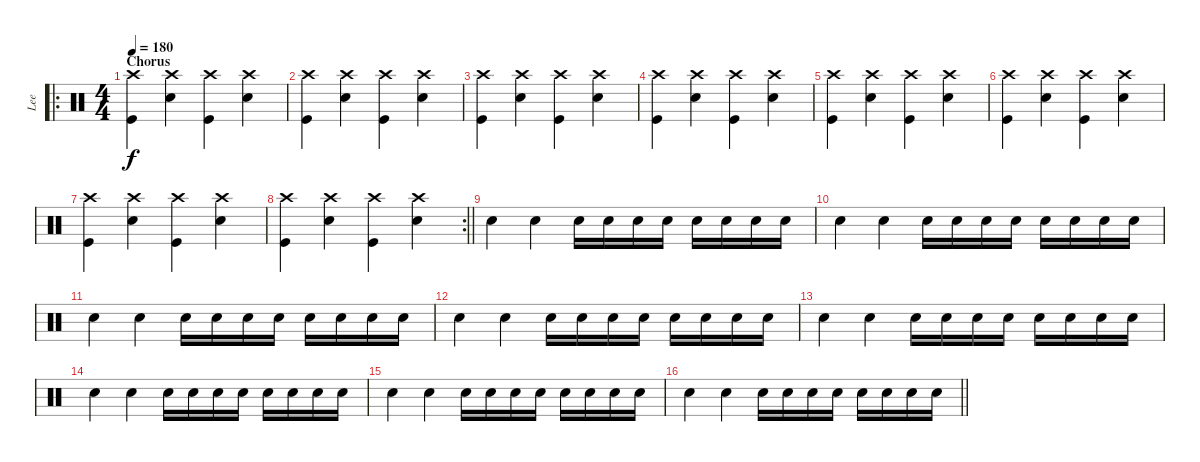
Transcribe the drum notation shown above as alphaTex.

\track ("Lee" "Lee") {instrument percussion}
\staff {score}
\articulation defaults
\ro
\ts (4 4)
\section ("" "Chorus")
\tempo 180
\clef neutral
\ks c
("Kick (hit)" "Crash high (hit)").4{dy f} ("Snare (hit) 2" "Crash high (hit)").4 ("Kick (hit)" "Crash high (hit)").4 ("Snare (hit) 2" "Crash high (hit)").4 |
("Kick (hit)" "Crash high (hit)").4 ("Snare (hit) 2" "Crash high (hit)").4 ("Kick (hit)" "Crash high (hit)").4 ("Snare (hit) 2" "Crash high (hit)").4 |
("Kick (hit)" "Crash high (hit)").4 ("Snare (hit) 2" "Crash high (hit)").4 ("Kick (hit)" "Crash high (hit)").4 ("Snare (hit) 2" "Crash high (hit)").4 |
("Kick (hit)" "Crash high (hit)").4 ("Snare (hit) 2" "Crash high (hit)").4 ("Kick (hit)" "Crash high (hit)").4 ("Snare (hit) 2" "Crash high (hit)").4 |
("Kick (hit)" "Crash high (hit)").4 ("Snare (hit) 2" "Crash high (hit)").4 ("Kick (hit)" "Crash high (hit)").4 ("Snare (hit) 2" "Crash high (hit)").4 |
("Kick (hit)" "Crash high (hit)").4 ("Snare (hit) 2" "Crash high (hit)").4 ("Kick (hit)" "Crash high (hit)").4 ("Snare (hit) 2" "Crash high (hit)").4 |
("Kick (hit)" "Crash high (hit)").4 ("Snare (hit) 2" "Crash high (hit)").4 ("Kick (hit)" "Crash high (hit)").4 ("Snare (hit) 2" "Crash high (hit)").4 |
\rc 2
\barLineRight lightlight
("Kick (hit)" "Crash high (hit)").4 ("Snare (hit) 2" "Crash high (hit)").4 ("Kick (hit)" "Crash high (hit)").4 ("Snare (hit) 2" "Crash high (hit)").4 |
"Snare (hit) 2".4 "Snare (hit) 2".4 "Snare (hit) 2".16 "Snare (hit) 2".16 "Snare (hit) 2".16 "Snare (hit) 2".16 "Snare (hit) 2".16 "Snare (hit) 2".16 "Snare (hit) 2".16 "Snare (hit) 2".16 |
"Snare (hit) 2".4 "Snare (hit) 2".4 "Snare (hit) 2".16 "Snare (hit) 2".16 "Snare (hit) 2".16 "Snare (hit) 2".16 "Snare (hit) 2".16 "Snare (hit) 2".16 "Snare (hit) 2".16 "Snare (hit) 2".16 |
"Snare (hit) 2".4 "Snare (hit) 2".4 "Snare (hit) 2".16 "Snare (hit) 2".16 "Snare (hit) 2".16 "Snare (hit) 2".16 "Snare (hit) 2".16 "Snare (hit) 2".16 "Snare (hit) 2".16 "Snare (hit) 2".16 |
"Snare (hit) 2".4 "Snare (hit) 2".4 "Snare (hit) 2".16 "Snare (hit) 2".16 "Snare (hit) 2".16 "Snare (hit) 2".16 "Snare (hit) 2".16 "Snare (hit) 2".16 "Snare (hit) 2".16 "Snare (hit) 2".16 |
"Snare (hit) 2".4 "Snare (hit) 2".4 "Snare (hit) 2".16 "Snare (hit) 2".16 "Snare (hit) 2".16 "Snare (hit) 2".16 "Snare (hit) 2".16 "Snare (hit) 2".16 "Snare (hit) 2".16 "Snare (hit) 2".16 |
"Snare (hit) 2".4 "Snare (hit) 2".4 "Snare (hit) 2".16 "Snare (hit) 2".16 "Snare (hit) 2".16 "Snare (hit) 2".16 "Snare (hit) 2".16 "Snare (hit) 2".16 "Snare (hit) 2".16 "Snare (hit) 2".16 |
"Snare (hit) 2".4 "Snare (hit) 2".4 "Snare (hit) 2".16 "Snare (hit) 2".16 "Snare (hit) 2".16 "Snare (hit) 2".16 "Snare (hit) 2".16 "Snare (hit) 2".16 "Snare (hit) 2".16 "Snare (hit) 2".16 |
\barLineRight lightlight "Snare (hit) 2".4 "Snare (hit) 2".4 "Snare (hit) 2".16 "Snare (hit) 2".16 "Snare (hit) 2".16 "Snare (hit) 2".16 "Snare (hit) 2".16 "Snare (hit) 2".16 "Snare (hit) 2".16 "Snare (hit) 2".16
